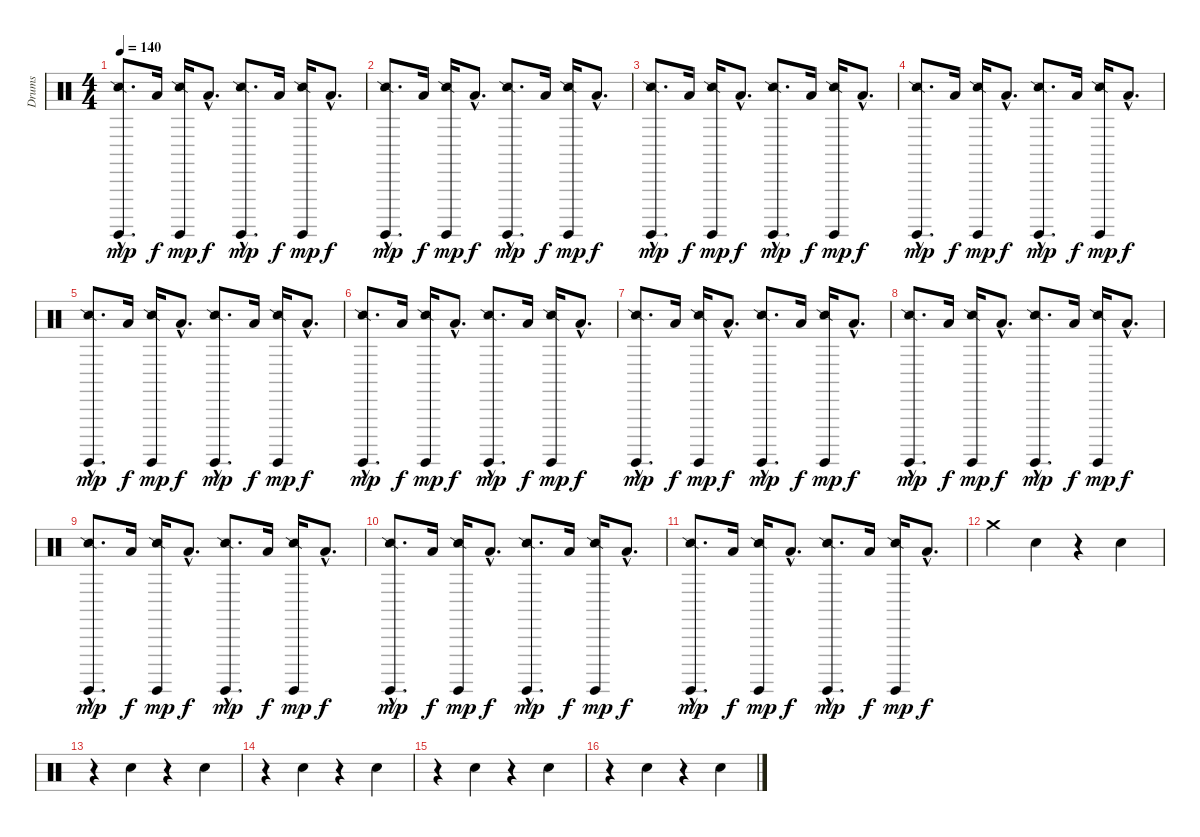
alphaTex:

\track ("Drums" "Drums") {instrument percussion}
\staff {score}
\articulation defaults
\ts (4 4)
\tempo 140
\clef neutral
\ks c
("Surdo (hit)"{hac} "Snare (side stick) 2"{hac}).8{d dy mp} "Low Floor Tom (hit)".16{dy f} ("Surdo (hit)" "Snare (side stick) 2").16{dy mp} "Low Floor Tom (hit)"{hac}.8{d dy f} ("Surdo (hit)"{hac} "Snare (side stick) 2"{hac}).8{d dy mp} "Low Floor Tom (hit)".16{dy f} ("Surdo (hit)" "Snare (side stick) 2").16{dy mp} "Low Floor Tom (hit)"{hac}.8{d dy f} |
("Surdo (hit)"{hac} "Snare (side stick) 2"{hac}).8{d dy mp} "Low Floor Tom (hit)".16{dy f} ("Surdo (hit)" "Snare (side stick) 2").16{dy mp} "Low Floor Tom (hit)"{hac}.8{d dy f} ("Surdo (hit)"{hac} "Snare (side stick) 2"{hac}).8{d dy mp} "Low Floor Tom (hit)".16{dy f} ("Surdo (hit)" "Snare (side stick) 2").16{dy mp} "Low Floor Tom (hit)"{hac}.8{d dy f} |
("Surdo (hit)"{hac} "Snare (side stick) 2"{hac}).8{d dy mp} "Low Floor Tom (hit)".16{dy f} ("Surdo (hit)" "Snare (side stick) 2").16{dy mp} "Low Floor Tom (hit)"{hac}.8{d dy f} ("Surdo (hit)"{hac} "Snare (side stick) 2"{hac}).8{d dy mp} "Low Floor Tom (hit)".16{dy f} ("Surdo (hit)" "Snare (side stick) 2").16{dy mp} "Low Floor Tom (hit)"{hac}.8{d dy f} |
("Surdo (hit)"{hac} "Snare (side stick) 2"{hac}).8{d dy mp} "Low Floor Tom (hit)".16{dy f} ("Surdo (hit)" "Snare (side stick) 2").16{dy mp} "Low Floor Tom (hit)"{hac}.8{d dy f} ("Surdo (hit)"{hac} "Snare (side stick) 2"{hac}).8{d dy mp} "Low Floor Tom (hit)".16{dy f} ("Surdo (hit)" "Snare (side stick) 2").16{dy mp} "Low Floor Tom (hit)"{hac}.8{d dy f} |
("Surdo (hit)"{hac} "Snare (side stick) 2"{hac}).8{d dy mp} "Low Floor Tom (hit)".16{dy f} ("Surdo (hit)" "Snare (side stick) 2").16{dy mp} "Low Floor Tom (hit)"{hac}.8{d dy f} ("Surdo (hit)"{hac} "Snare (side stick) 2"{hac}).8{d dy mp} "Low Floor Tom (hit)".16{dy f} ("Surdo (hit)" "Snare (side stick) 2").16{dy mp} "Low Floor Tom (hit)"{hac}.8{d dy f} |
("Surdo (hit)"{hac} "Snare (side stick) 2"{hac}).8{d dy mp} "Low Floor Tom (hit)".16{dy f} ("Surdo (hit)" "Snare (side stick) 2").16{dy mp} "Low Floor Tom (hit)"{hac}.8{d dy f} ("Surdo (hit)"{hac} "Snare (side stick) 2"{hac}).8{d dy mp} "Low Floor Tom (hit)".16{dy f} ("Surdo (hit)" "Snare (side stick) 2").16{dy mp} "Low Floor Tom (hit)"{hac}.8{d dy f} |
("Surdo (hit)"{hac} "Snare (side stick) 2"{hac}).8{d dy mp} "Low Floor Tom (hit)".16{dy f} ("Surdo (hit)" "Snare (side stick) 2").16{dy mp} "Low Floor Tom (hit)"{hac}.8{d dy f} ("Surdo (hit)"{hac} "Snare (side stick) 2"{hac}).8{d dy mp} "Low Floor Tom (hit)".16{dy f} ("Surdo (hit)" "Snare (side stick) 2").16{dy mp} "Low Floor Tom (hit)"{hac}.8{d dy f} |
("Surdo (hit)"{hac} "Snare (side stick) 2"{hac}).8{d dy mp} "Low Floor Tom (hit)".16{dy f} ("Surdo (hit)" "Snare (side stick) 2").16{dy mp} "Low Floor Tom (hit)"{hac}.8{d dy f} ("Surdo (hit)"{hac} "Snare (side stick) 2"{hac}).8{d dy mp} "Low Floor Tom (hit)".16{dy f} ("Surdo (hit)" "Snare (side stick) 2").16{dy mp} "Low Floor Tom (hit)"{hac}.8{d dy f} |
("Surdo (hit)"{hac} "Snare (side stick) 2"{hac}).8{d dy mp} "Low Floor Tom (hit)".16{dy f} ("Surdo (hit)" "Snare (side stick) 2").16{dy mp} "Low Floor Tom (hit)"{hac}.8{d dy f} ("Surdo (hit)"{hac} "Snare (side stick) 2"{hac}).8{d dy mp} "Low Floor Tom (hit)".16{dy f} ("Surdo (hit)" "Snare (side stick) 2").16{dy mp} "Low Floor Tom (hit)"{hac}.8{d dy f} |
("Surdo (hit)"{hac} "Snare (side stick) 2"{hac}).8{d dy mp} "Low Floor Tom (hit)".16{dy f} ("Surdo (hit)" "Snare (side stick) 2").16{dy mp} "Low Floor Tom (hit)"{hac}.8{d dy f} ("Surdo (hit)"{hac} "Snare (side stick) 2"{hac}).8{d dy mp} "Low Floor Tom (hit)".16{dy f} ("Surdo (hit)" "Snare (side stick) 2").16{dy mp} "Low Floor Tom (hit)"{hac}.8{d dy f} |
("Surdo (hit)"{hac} "Snare (side stick) 2"{hac}).8{d dy mp} "Low Floor Tom (hit)".16{dy f} ("Surdo (hit)" "Snare (side stick) 2").16{dy mp} "Low Floor Tom (hit)"{hac}.8{d dy f} ("Surdo (hit)"{hac} "Snare (side stick) 2"{hac}).8{d dy mp} "Low Floor Tom (hit)".16{dy f} ("Surdo (hit)" "Snare (side stick) 2").16{dy mp} "Low Floor Tom (hit)"{hac}.8{d dy f} |
"Crash medium (hit)".4 "Hand Clap (hit)".4 r.4 "Hand Clap (hit)".4 |
r.4 "Hand Clap (hit)".4 r.4 "Hand Clap (hit)".4 |
r.4 "Hand Clap (hit)".4 r.4 "Hand Clap (hit)".4 |
r.4 "Hand Clap (hit)".4 r.4 "Hand Clap (hit)".4 |
r.4 "Hand Clap (hit)".4 r.4 "Hand Clap (hit)".4
